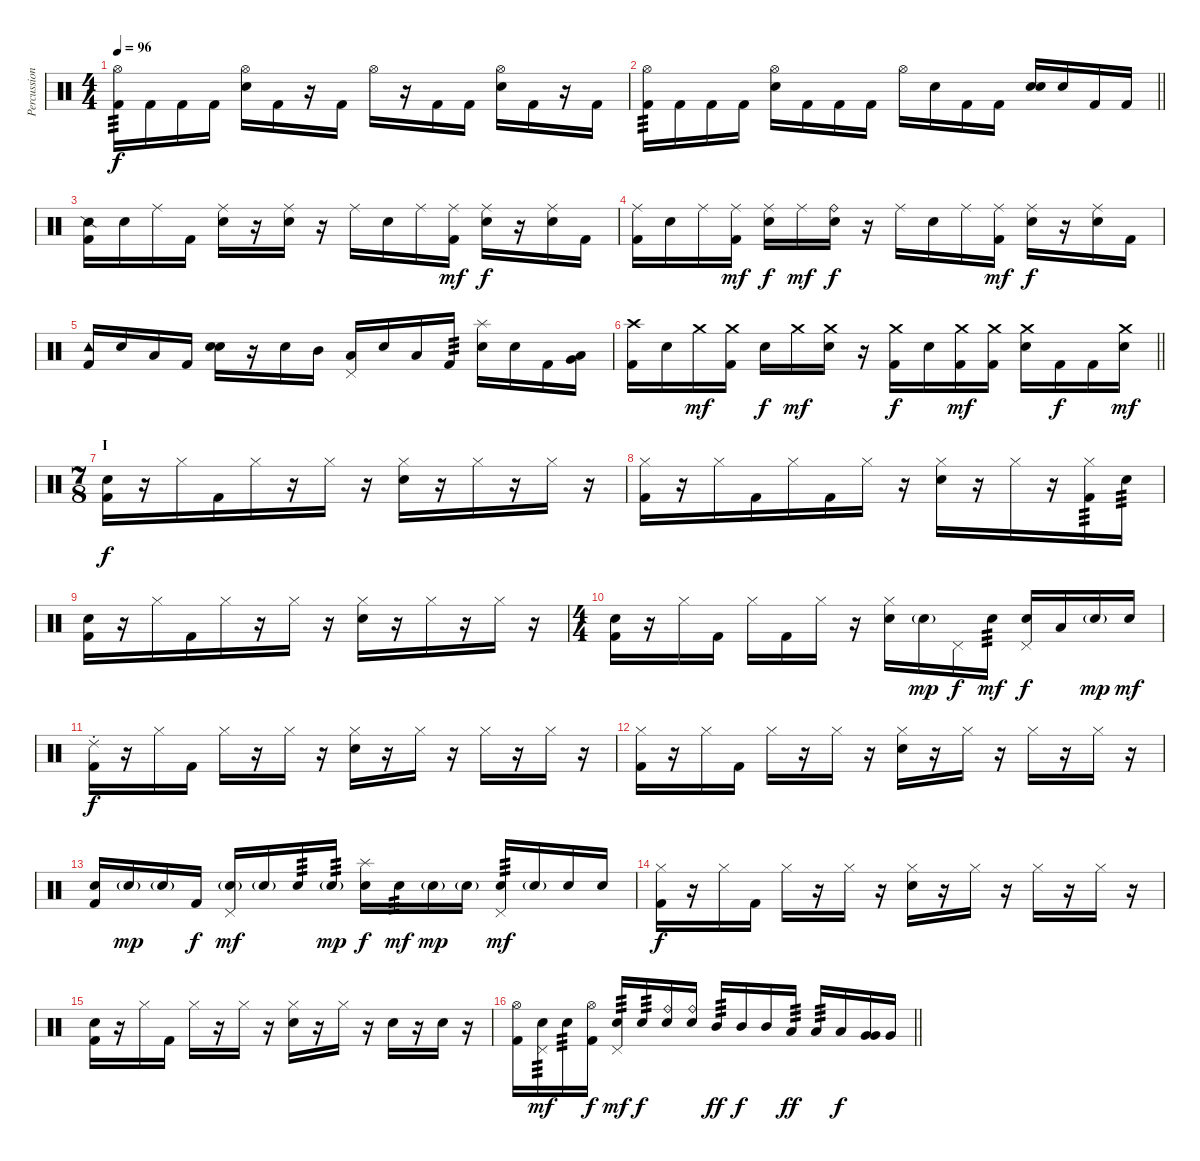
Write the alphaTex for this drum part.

\track ("Percussion" "Percussion") {instrument percussion}
\staff {score}
\articulation defaults
\ts (4 4)
\tempo 96
\clef neutral
\ks c
("Hi-Hat (open)" "Kick (hit) 2").16{tp 3 dy f} "Kick (hit) 2".16 "Kick (hit) 2".16 "Kick (hit) 2".16 ("Hi-Hat (open)" "Snare (hit) 2").16 "Kick (hit) 2".16 r.16 "Kick (hit) 2".16 "Hi-Hat (open)".16 r.16 "Kick (hit) 2".16 "Kick (hit) 2".16 ("Hi-Hat (open)" "Snare (hit) 2").16 "Kick (hit) 2".16 r.16 "Kick (hit) 2".16 |
\barLineRight lightlight
("Hi-Hat (open)" "Kick (hit) 2").16{tp 3} "Kick (hit) 2".16 "Kick (hit) 2".16 "Kick (hit) 2".16 ("Hi-Hat (open)" "Snare (hit) 2").16 "Kick (hit) 2".16 "Kick (hit) 2".16 "Kick (hit) 2".16 "Hi-Hat (open)".16 "Snare (hit) 2".16 "Kick (hit) 2".16 "Kick (hit) 2".16 ("Snare (hit)" "Snare (hit) 2").16 "Snare (hit) 2".16 "Kick (hit) 2".16 "Kick (hit) 2".16 |
("Snare (side stick) 2" "Kick (hit) 2").16 "Snare (hit) 2".16 "Ride (middle)".16 "Kick (hit) 2".16 ("Ride (middle)" "Snare (hit) 2").16 r.16 ("Ride (middle)" "Snare (hit) 2").16 r.16 "Ride (middle)".16 "Snare (hit) 2".16 "Ride (middle)".16 ("Ride (middle)" "Kick (hit) 2").16{dy mf} ("Ride (middle)" "Snare (hit) 2").16{dy f} r.16 ("Ride (middle)" "Snare (hit) 2").16 "Kick (hit) 2".16 |
("Ride (middle)" "Kick (hit) 2").16 "Snare (hit) 2".16 "Ride (middle)".16 ("Ride (middle)" "Kick (hit) 2").16{dy mf} ("Ride (middle)" "Snare (hit) 2").16{dy f} "Ride (middle)".16{dy mf} ("Ride (bell)" "Snare (hit) 2").16{dy f} r.16 "Ride (middle)".16 "Snare (hit) 2".16 "Ride (middle)".16 ("Ride (middle)" "Kick (hit) 2").16{dy mf} ("Ride (middle)" "Snare (hit) 2").16{dy f} r.16 ("Ride (middle)" "Snare (hit) 2").16 "Kick (hit) 2".16 |
("Tambourine (hit)" "Kick (hit) 2").16 "Snare (hit) 2".16 "Low Tom (hit)".16 "Kick (hit) 2".16 ("Snare (hit)" "Snare (hit) 2").16 r.16 "Snare (hit) 2".16 "Mid Tom (hit)".16 ("Pedal Hi-Hat (hit)" "Low Tom (hit)").16 "Snare (hit) 2".16 "Low Floor Tom (hit)".16 "Kick (hit) 2".16{tp 3} ("Splash (hit)" "Snare (hit) 2").16 "Snare (hit) 2".16 "Kick (hit) 2".16 ("Low Tom (hit)" "Very Low Tom (hit)").16{bu 60} |
\barLineRight lightlight
("Crash high (hit)" "Kick (hit) 2").16 "Snare (hit) 2".16 "Crash medium (hit)".16{dy mf} ("Crash medium (hit)" "Kick (hit) 2").16 "Snare (hit) 2".16{dy f} "Crash medium (hit)".16{dy mf} ("Crash medium (hit)" "Snare (hit) 2").16 r.16 ("Crash medium (hit)" "Kick (hit) 2").16{dy f} "Snare (hit) 2".16 ("Crash medium (hit)" "Kick (hit) 2").16{dy mf} ("Crash medium (hit)" "Kick (hit) 2").16 ("Crash medium (hit)" "Snare (hit) 2").16 "Kick (hit) 2".16{dy f} "Kick (hit) 2".16 ("Crash medium (hit)" "Snare (hit) 2").16{dy mf} |
\ts (7 8)
\section ("" "I")
("Snare (hit)" "Kick (hit) 2").16{dy f} r.16 "Hi-Hat (closed)".16 "Kick (hit) 2".16 "Hi-Hat (closed)".16 r.16 "Hi-Hat (closed)".16 r.16 ("Hi-Hat (closed)" "Snare (hit) 2").16 r.16 "Hi-Hat (closed)".16 r.16 "Hi-Hat (closed)".16 r.16 |
("Hi-Hat (closed)" "Kick (hit) 2").16 r.16 "Hi-Hat (closed)".16 "Kick (hit) 2".16 "Hi-Hat (closed)".16 "Kick (hit) 2".16 "Hi-Hat (closed)".16 r.16 ("Hi-Hat (closed)" "Snare (hit) 2").16 r.16 "Hi-Hat (closed)".16 r.16 ("Hi-Hat (closed)" "Kick (hit) 2").16{tp 3} "Snare (hit)".16{tp 3} |
("Snare (hit)" "Kick (hit) 2").16 r.16 "Hi-Hat (closed)".16 "Kick (hit) 2".16 "Hi-Hat (closed)".16 r.16 "Hi-Hat (closed)".16 r.16 ("Hi-Hat (closed)" "Snare (hit) 2").16 r.16 "Hi-Hat (closed)".16 r.16 "Hi-Hat (closed)".16 r.16 |
\ts (4 4)
("Snare (hit)" "Kick (hit) 2").16 r.16 "Hi-Hat (closed)".16 "Kick (hit) 2".16 "Hi-Hat (closed)".16 "Kick (hit) 2".16 "Hi-Hat (closed)".16 r.16 ("Hi-Hat (closed)" "Snare (hit) 2").16 "Snare (hit) 2"{g}.16{dy mp} "Pedal Hi-Hat (hit)".16{dy f} "Snare (hit) 2".16{tp 3 dy mf} ("Pedal Hi-Hat (hit)" "Snare (hit) 2").16{dy f} "Low Tom (hit)".16 "Snare (hit) 2"{g}.16{dy mp} "Snare (hit) 2".16{dy mf} |
("Ride (choke) 2" "Kick (hit) 2").16{dy f} r.16 "Hi-Hat (closed)".16 "Kick (hit) 2".16 "Hi-Hat (closed)".16 r.16 "Hi-Hat (closed)".16 r.16 ("Hi-Hat (closed)" "Snare (hit) 2").16 r.16 "Hi-Hat (closed)".16 r.16 "Hi-Hat (closed)".16 r.16 "Hi-Hat (closed)".16 r.16 |
("Hi-Hat (closed)" "Kick (hit) 2").16 r.16 "Hi-Hat (closed)".16 "Kick (hit) 2".16 "Hi-Hat (closed)".16 r.16 "Hi-Hat (closed)".16 r.16 ("Hi-Hat (closed)" "Snare (hit) 2").16 r.16 "Hi-Hat (closed)".16 r.16 "Hi-Hat (closed)".16 r.16 "Hi-Hat (closed)".16 r.16 |
("Snare (hit)" "Kick (hit) 2").16 "Snare (hit) 2"{g}.16{dy mp} "Snare (hit) 2"{g}.16 "Kick (hit) 2".16{dy f} ("Pedal Hi-Hat (hit)" "Snare (hit) 2"{g}).16{dy mf} "Snare (hit) 2"{g}.16 "Snare (hit) 2".16{tp 3} "Snare (hit) 2"{g}.16{tp 3 dy mp} ("Splash (hit)" "Snare (hit) 2").16{dy f} "Snare (hit) 2".16{tp 3 dy mf} "Snare (hit) 2"{g}.16{dy mp} "Snare (hit) 2"{g}.16 ("Pedal Hi-Hat (hit)" "Snare (hit) 2").16{tp 3 dy mf} "Snare (hit) 2"{g}.16 "Snare (hit) 2".16 "Snare (hit) 2".16 |
("Hi-Hat (closed)" "Kick (hit) 2").16{dy f} r.16 "Hi-Hat (closed)".16 "Kick (hit) 2".16 "Hi-Hat (closed)".16 r.16 "Hi-Hat (closed)".16 r.16 ("Hi-Hat (closed)" "Snare (hit) 2").16 r.16 "Hi-Hat (closed)".16 r.16 "Hi-Hat (closed)".16 r.16 "Hi-Hat (closed)".16 r.16 |
("Snare (hit)" "Kick (hit) 2").16 r.16 "Hi-Hat (closed)".16 "Kick (hit) 2".16 "Hi-Hat (closed)".16 r.16 "Hi-Hat (closed)".16 r.16 ("Hi-Hat (closed)" "Snare (hit) 2").16 r.16 "Hi-Hat (closed)".16 r.16 "Snare (hit)".16 r.16 "Snare (hit)".16 r.16 |
\barLineRight lightlight
("Hi-Hat (open)" "Kick (hit) 2").16 ("Pedal Hi-Hat (hit)" "Snare (hit) 2").16{tp 3 dy mf} "Snare (hit) 2".16{tp 3} ("Hi-Hat (open)" "Kick (hit) 2").16{dy f} ("Pedal Hi-Hat (hit)" "Snare (hit) 2").16{tp 3 dy mf} "Snare (hit) 2".16{tp 3 dy f} ("Ride (bell)" "Snare (hit) 2").16 ("Ride (bell)" "Snare (hit) 2").16 "Mid Tom (hit)".16{tp 3 dy ff} "Mid Tom (hit)".16{dy f} "Mid Tom (hit)".16 "Low Tom (hit)".16{tp 3 dy ff} "Low Tom (hit)".16{tp 3} "Low Tom (hit)".16{dy f} ("Very Low Tom (hit)" "Very Low Tom (hit)").16{bu 60} "Very Low Tom (hit)".16
